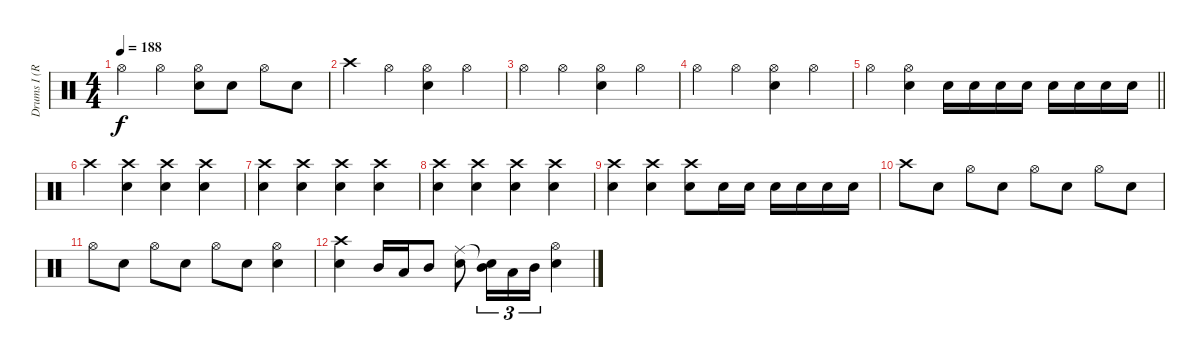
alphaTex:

\track ("Drums I (Ruka)" "Drums I (R") {instrument percussion}
\staff {score}
\articulation defaults
\ts (4 4)
\tempo 188
\clef neutral
\ks c "Hi-Hat (open)".4{dy f} "Hi-Hat (open)".4
("Hi-Hat (open)" "Snare (hit) 2").8 "Snare (hit) 2".8 "Hi-Hat (open)".8 "Snare (hit) 2".8 |
"Crash high (hit)".4 "Hi-Hat (open)".4 ("Hi-Hat (open)" "Snare (hit) 2").4 "Hi-Hat (open)".4 |
"Hi-Hat (open)".4 "Hi-Hat (open)".4 ("Hi-Hat (open)" "Snare (hit) 2").4 "Hi-Hat (open)".4 |
"Hi-Hat (open)".4 "Hi-Hat (open)".4 ("Hi-Hat (open)" "Snare (hit) 2").4 "Hi-Hat (open)".4 |
\barLineRight lightlight "Hi-Hat (open)".4
("Hi-Hat (open)" "Snare (hit) 2").4 "Snare (hit) 2".16 "Snare (hit) 2".16 "Snare (hit) 2".16 "Snare (hit) 2".16 "Snare (hit) 2".16 "Snare (hit) 2".16 "Snare (hit) 2".16 "Snare (hit) 2".16 |
"Crash high (hit)".4 ("Crash high (hit)" "Snare (hit) 2").4 ("Crash high (hit)" "Snare (hit) 2").4 ("Crash high (hit)" "Snare (hit) 2").4 |
("Crash high (hit)" "Snare (hit) 2").4 ("Crash high (hit)" "Snare (hit) 2").4 ("Crash high (hit)" "Snare (hit) 2").4 ("Crash high (hit)" "Snare (hit) 2").4 |
("Crash high (hit)" "Snare (hit) 2").4 ("Crash high (hit)" "Snare (hit) 2").4 ("Crash high (hit)" "Snare (hit) 2").4 ("Crash high (hit)" "Snare (hit) 2").4 |
("Crash high (hit)" "Snare (hit) 2").4 ("Crash high (hit)" "Snare (hit) 2").4 ("Crash high (hit)" "Snare (hit) 2").8 "Snare (hit) 2".16 "Snare (hit) 2".16 "Snare (hit) 2".16 "Snare (hit) 2".16 "Snare (hit) 2".16 "Snare (hit) 2".16 |
"Crash high (hit)".8 "Snare (hit) 2".8 "Hi-Hat (open)".8 "Snare (hit) 2".8 "Hi-Hat (open)".8 "Snare (hit) 2".8 "Hi-Hat (open)".8 "Snare (hit) 2".8 |
"Hi-Hat (open)".8 "Snare (hit) 2".8 "Hi-Hat (open)".8 "Snare (hit) 2".8 "Hi-Hat (open)".8 "Snare (hit) 2".8 ("Hi-Hat (open)" "Snare (hit) 2").4 |
("Crash high (hit)" "Snare (hit) 2").4 "Mid Tom (hit)".16 "Low Tom (hit)".16 "Mid Tom (hit)".8 ("Ride (middle)" "Snare (hit) 2").8 ("Snare (hit)"{t} "Mid Tom (hit)").16{tu (3 2)} "Low Tom (hit)".16{tu (3 2)} "Mid Tom (hit)".16{tu (3 2)} ("Hi-Hat (open)" "Snare (hit) 2").4
